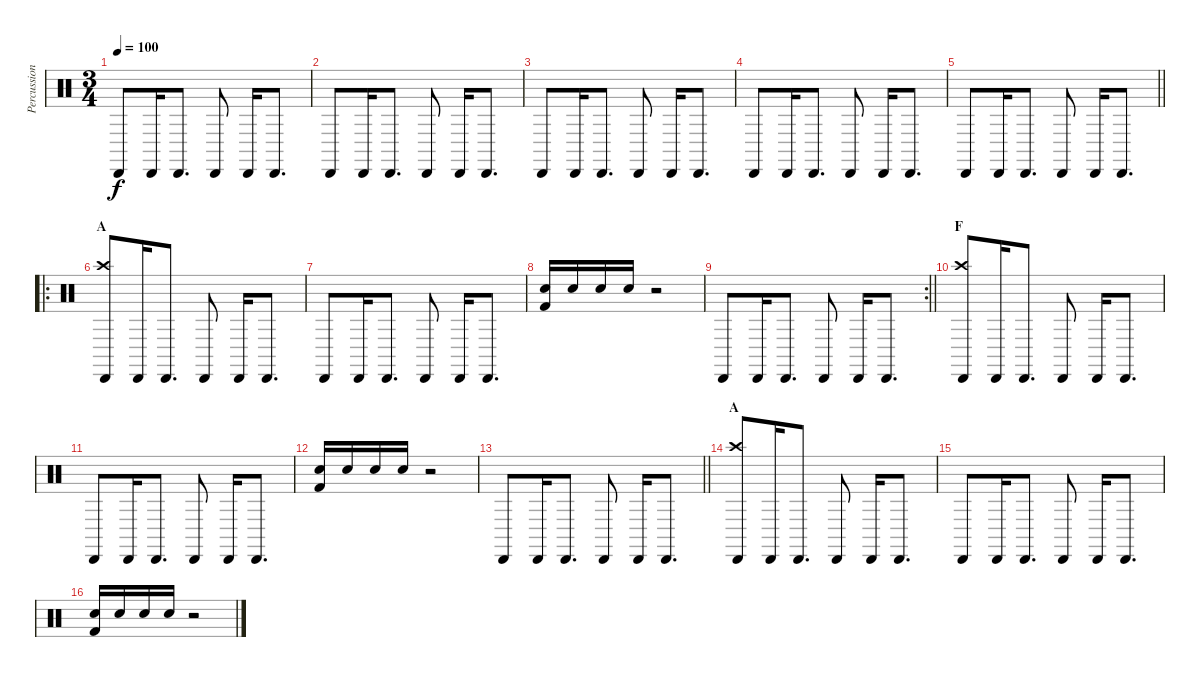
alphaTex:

\track ("Percussion" "Percussion") {instrument percussion}
\staff {score}
\articulation defaults
\ts (3 4)
\tempo 100
\clef neutral
\ks c "Cabasa (hit)".8{dy f} "Cabasa (hit)".16 "Cabasa (hit)".8{d} "Cabasa (hit)".8 "Cabasa (hit)".16 "Cabasa (hit)".8{d}
|
"Cabasa (hit)".8 "Cabasa (hit)".16 "Cabasa (hit)".8{d} "Cabasa (hit)".8 "Cabasa (hit)".16 "Cabasa (hit)".8{d} |
"Cabasa (hit)".8 "Cabasa (hit)".16 "Cabasa (hit)".8{d} "Cabasa (hit)".8 "Cabasa (hit)".16 "Cabasa (hit)".8{d} |
"Cabasa (hit)".8 "Cabasa (hit)".16 "Cabasa (hit)".8{d} "Cabasa (hit)".8 "Cabasa (hit)".16 "Cabasa (hit)".8{d} |
\barLineRight lightlight "Cabasa (hit)".8 "Cabasa (hit)".16 "Cabasa (hit)".8{d} "Cabasa (hit)".8 "Cabasa (hit)".16 "Cabasa (hit)".8{d}
|
\ro
\section ("" "A")
("Cabasa (hit)" "Crash high (hit)").8 "Cabasa (hit)".16 "Cabasa (hit)".8{d} "Cabasa (hit)".8 "Cabasa (hit)".16 "Cabasa (hit)".8{d} |
"Cabasa (hit)".8 "Cabasa (hit)".16 "Cabasa (hit)".8{d} "Cabasa (hit)".8 "Cabasa (hit)".16 "Cabasa (hit)".8{d} |
("Snare (hit) 2" "Kick (hit) 2").16 "Snare (hit) 2".16 "Snare (hit) 2".16 "Snare (hit) 2".16 r.2 |
\rc 2
\barLineRight lightlight "Cabasa (hit)".8 "Cabasa (hit)".16 "Cabasa (hit)".8{d} "Cabasa (hit)".8 "Cabasa (hit)".16 "Cabasa (hit)".8{d}
|
\section ("" "F")
("Cabasa (hit)" "Crash high (hit)").8 "Cabasa (hit)".16 "Cabasa (hit)".8{d} "Cabasa (hit)".8 "Cabasa (hit)".16 "Cabasa (hit)".8{d} |
"Cabasa (hit)".8 "Cabasa (hit)".16 "Cabasa (hit)".8{d} "Cabasa (hit)".8 "Cabasa (hit)".16 "Cabasa (hit)".8{d} |
("Snare (hit) 2" "Kick (hit) 2").16 "Snare (hit) 2".16 "Snare (hit) 2".16 "Snare (hit) 2".16 r.2 |
\barLineRight lightlight "Cabasa (hit)".8 "Cabasa (hit)".16 "Cabasa (hit)".8{d} "Cabasa (hit)".8 "Cabasa (hit)".16 "Cabasa (hit)".8{d}
|
\section ("" "A")
("Cabasa (hit)" "Crash high (hit)").8 "Cabasa (hit)".16 "Cabasa (hit)".8{d} "Cabasa (hit)".8 "Cabasa (hit)".16 "Cabasa (hit)".8{d} |
"Cabasa (hit)".8 "Cabasa (hit)".16 "Cabasa (hit)".8{d} "Cabasa (hit)".8 "Cabasa (hit)".16 "Cabasa (hit)".8{d} |
("Snare (hit) 2" "Kick (hit) 2").16 "Snare (hit) 2".16 "Snare (hit) 2".16 "Snare (hit) 2".16 r.2
